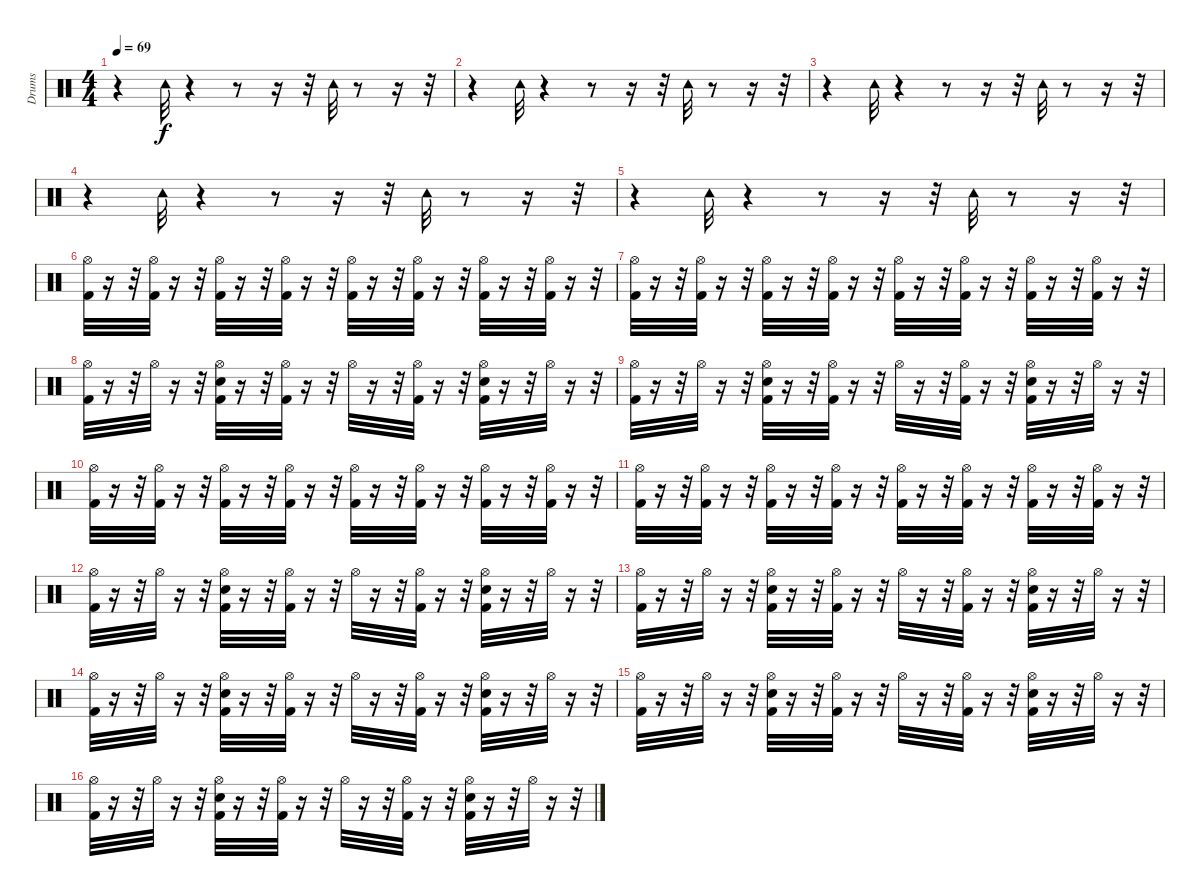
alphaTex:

\track ("Drums" "Drums") {instrument percussion}
\staff {score}
\articulation defaults
\ts (4 4)
\tempo 69
\clef neutral
\ks c
r.4{dy f} "Tambourine (hit)".32 r.4 r.8 r.16 r.32 "Tambourine (hit)".32 r.8 r.16 r.32 |
r.4 "Tambourine (hit)".32 r.4 r.8 r.16 r.32 "Tambourine (hit)".32 r.8 r.16 r.32 |
r.4 "Tambourine (hit)".32 r.4 r.8 r.16 r.32 "Tambourine (hit)".32 r.8 r.16 r.32 |
r.4 "Tambourine (hit)".32 r.4 r.8 r.16 r.32 "Tambourine (hit)".32 r.8 r.16 r.32 |
r.4 "Tambourine (hit)".32 r.4 r.8 r.16 r.32 "Tambourine (hit)".32 r.8 r.16 r.32 |
("Kick (hit) 2" "Hi-Hat (open)").32 r.16 r.32 ("Kick (hit) 2" "Hi-Hat (open)").32 r.16 r.32 ("Kick (hit) 2" "Hi-Hat (open)").32 r.16 r.32 ("Kick (hit) 2" "Hi-Hat (open)").32 r.16 r.32 ("Kick (hit) 2" "Hi-Hat (open)").32 r.16 r.32 ("Kick (hit) 2" "Hi-Hat (open)").32 r.16 r.32 ("Kick (hit) 2" "Hi-Hat (open)").32 r.16 r.32 ("Kick (hit) 2" "Hi-Hat (open)").32 r.16 r.32 |
("Kick (hit) 2" "Hi-Hat (open)").32 r.16 r.32 ("Kick (hit) 2" "Hi-Hat (open)").32 r.16 r.32 ("Kick (hit) 2" "Hi-Hat (open)").32 r.16 r.32 ("Kick (hit) 2" "Hi-Hat (open)").32 r.16 r.32 ("Kick (hit) 2" "Hi-Hat (open)").32 r.16 r.32 ("Kick (hit) 2" "Hi-Hat (open)").32 r.16 r.32 ("Kick (hit) 2" "Hi-Hat (open)").32 r.16 r.32 ("Kick (hit) 2" "Hi-Hat (open)").32 r.16 r.32 |
("Hi-Hat (open)" "Kick (hit) 2").32 r.16 r.32 "Hi-Hat (open)".32 r.16 r.32 ("Electric Snare (hit)" "Hi-Hat (open)" "Kick (hit) 2").32 r.16 r.32 ("Kick (hit) 2" "Hi-Hat (open)").32 r.16 r.32 "Hi-Hat (open)".32 r.16 r.32 ("Kick (hit) 2" "Hi-Hat (open)").32 r.16 r.32 ("Electric Snare (hit)" "Kick (hit) 2" "Hi-Hat (open)").32 r.16 r.32 "Hi-Hat (open)".32 r.16 r.32 |
("Hi-Hat (open)" "Kick (hit) 2").32 r.16 r.32 "Hi-Hat (open)".32 r.16 r.32 ("Electric Snare (hit)" "Hi-Hat (open)" "Kick (hit) 2").32 r.16 r.32 ("Kick (hit) 2" "Hi-Hat (open)").32 r.16 r.32 "Hi-Hat (open)".32 r.16 r.32 ("Kick (hit) 2" "Hi-Hat (open)").32 r.16 r.32 ("Electric Snare (hit)" "Kick (hit) 2" "Hi-Hat (open)").32 r.16 r.32 "Hi-Hat (open)".32 r.16 r.32 |
("Kick (hit) 2" "Hi-Hat (open)").32 r.16 r.32 ("Kick (hit) 2" "Hi-Hat (open)").32 r.16 r.32 ("Kick (hit) 2" "Hi-Hat (open)").32 r.16 r.32 ("Kick (hit) 2" "Hi-Hat (open)").32 r.16 r.32 ("Kick (hit) 2" "Hi-Hat (open)").32 r.16 r.32 ("Kick (hit) 2" "Hi-Hat (open)").32 r.16 r.32 ("Kick (hit) 2" "Hi-Hat (open)").32 r.16 r.32 ("Kick (hit) 2" "Hi-Hat (open)").32 r.16 r.32 |
("Kick (hit) 2" "Hi-Hat (open)").32 r.16 r.32 ("Kick (hit) 2" "Hi-Hat (open)").32 r.16 r.32 ("Kick (hit) 2" "Hi-Hat (open)").32 r.16 r.32 ("Kick (hit) 2" "Hi-Hat (open)").32 r.16 r.32 ("Kick (hit) 2" "Hi-Hat (open)").32 r.16 r.32 ("Kick (hit) 2" "Hi-Hat (open)").32 r.16 r.32 ("Kick (hit) 2" "Hi-Hat (open)").32 r.16 r.32 ("Kick (hit) 2" "Hi-Hat (open)").32 r.16 r.32 |
("Hi-Hat (open)" "Kick (hit) 2").32 r.16 r.32 "Hi-Hat (open)".32 r.16 r.32 ("Electric Snare (hit)" "Hi-Hat (open)" "Kick (hit) 2").32 r.16 r.32 ("Kick (hit) 2" "Hi-Hat (open)").32 r.16 r.32 "Hi-Hat (open)".32 r.16 r.32 ("Kick (hit) 2" "Hi-Hat (open)").32 r.16 r.32 ("Electric Snare (hit)" "Kick (hit) 2" "Hi-Hat (open)").32 r.16 r.32 "Hi-Hat (open)".32 r.16 r.32 |
("Hi-Hat (open)" "Kick (hit) 2").32 r.16 r.32 "Hi-Hat (open)".32 r.16 r.32 ("Electric Snare (hit)" "Hi-Hat (open)" "Kick (hit) 2").32 r.16 r.32 ("Kick (hit) 2" "Hi-Hat (open)").32 r.16 r.32 "Hi-Hat (open)".32 r.16 r.32 ("Kick (hit) 2" "Hi-Hat (open)").32 r.16 r.32 ("Electric Snare (hit)" "Kick (hit) 2" "Hi-Hat (open)").32 r.16 r.32 "Hi-Hat (open)".32 r.16 r.32 |
("Hi-Hat (open)" "Kick (hit) 2").32 r.16 r.32 "Hi-Hat (open)".32 r.16 r.32 ("Electric Snare (hit)" "Hi-Hat (open)" "Kick (hit) 2").32 r.16 r.32 ("Kick (hit) 2" "Hi-Hat (open)").32 r.16 r.32 "Hi-Hat (open)".32 r.16 r.32 ("Kick (hit) 2" "Hi-Hat (open)").32 r.16 r.32 ("Electric Snare (hit)" "Kick (hit) 2" "Hi-Hat (open)").32 r.16 r.32 "Hi-Hat (open)".32 r.16 r.32 |
("Hi-Hat (open)" "Kick (hit) 2").32 r.16 r.32 "Hi-Hat (open)".32 r.16 r.32 ("Electric Snare (hit)" "Hi-Hat (open)" "Kick (hit) 2").32 r.16 r.32 ("Kick (hit) 2" "Hi-Hat (open)").32 r.16 r.32 "Hi-Hat (open)".32 r.16 r.32 ("Kick (hit) 2" "Hi-Hat (open)").32 r.16 r.32 ("Electric Snare (hit)" "Kick (hit) 2" "Hi-Hat (open)").32 r.16 r.32 "Hi-Hat (open)".32 r.16 r.32 |
("Hi-Hat (open)" "Kick (hit) 2").32 r.16 r.32 "Hi-Hat (open)".32 r.16 r.32 ("Electric Snare (hit)" "Hi-Hat (open)" "Kick (hit) 2").32 r.16 r.32 ("Kick (hit) 2" "Hi-Hat (open)").32 r.16 r.32 "Hi-Hat (open)".32 r.16 r.32 ("Kick (hit) 2" "Hi-Hat (open)").32 r.16 r.32 ("Electric Snare (hit)" "Kick (hit) 2" "Hi-Hat (open)").32 r.16 r.32 "Hi-Hat (open)".32 r.16 r.32
